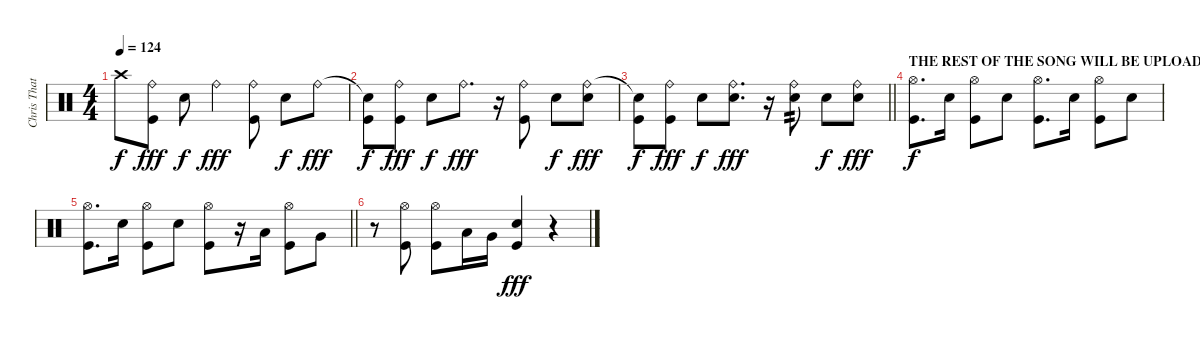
\track ("Chris Thatcher" "Chris That") {instrument percussion}
\staff {score}
\articulation defaults
\ts (4 4)
\tempo 124
\clef neutral
\ks c "Crash high (hit)".8{dy f}
("Ride (bell)" "Kick (hit)").8{dy fff} "Electric Snare (hit)".8{dy f} "Ride (bell)".4{dy fff} ("Ride (bell)" "Kick (hit)").8 "Electric Snare (hit)".8{dy f} "Ride (bell)".8{dy fff} |
("Snare (hit)"{t} "Kick (hit)").8{dy f} ("Ride (bell)" "Kick (hit)").8{dy fff} "Electric Snare (hit)".8{dy f} "Ride (bell)".8{d dy fff} r.16 ("Ride (bell)" "Kick (hit)").8 "Electric Snare (hit)".8{dy f} ("Ride (bell)" "Electric Snare (hit)").8{dy fff} |
\barLineRight lightlight
("Snare (hit)"{t} "Kick (hit)").8{dy f} ("Ride (bell)" "Kick (hit)").8{dy fff} "Electric Snare (hit)".8{dy f} ("Ride (bell)" "Electric Snare (hit)").8{d dy fff} r.16 ("Ride (bell)" "Electric Snare (hit)").8{tp 2} "Electric Snare (hit)".8{dy f} ("Ride (bell)" "Electric Snare (hit)").8{dy fff} |
\section ("" "THE REST OF THE SONG WILL BE UPLOADED TO ULTIMATE GUITAR SOON")
("Hi-Hat (open)" "Kick (hit)").8{d dy f} "Electric Snare (hit)".16 ("Hi-Hat (open)" "Kick (hit)").8 "Electric Snare (hit)".8 ("Hi-Hat (open)" "Kick (hit)").8{d} "Electric Snare (hit)".16 ("Hi-Hat (open)" "Kick (hit)").8 "Electric Snare (hit)".8 |
\barLineRight lightlight
("Hi-Hat (open)" "Kick (hit)").8{d} "Electric Snare (hit)".16 ("Hi-Hat (open)" "Kick (hit)").8 "Electric Snare (hit)".8 ("Hi-Hat (open)" "Kick (hit)").8 r.16 "Low Tom (hit)".16 ("Hi-Hat (open)" "Kick (hit)").8 "Very Low Tom (hit)".8 |
\section ("" "")
r.8 ("Hi-Hat (open)" "Kick (hit)").8 ("Hi-Hat (open)" "Kick (hit)").8 "Low Tom (hit)".16 "Very Low Tom (hit)".16 ("Electric Snare (hit)" "Kick (hit)").4{dy fff} r.4
